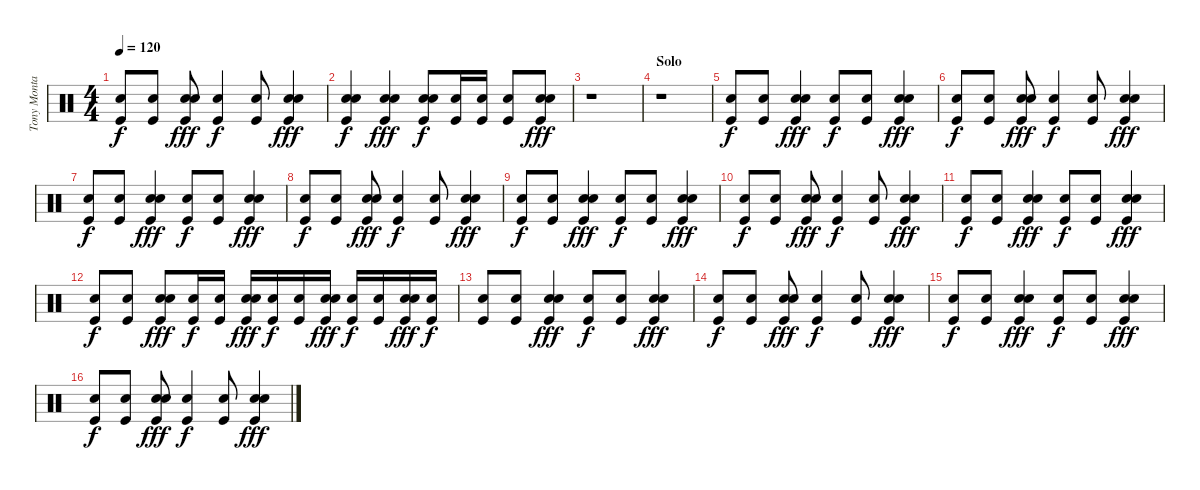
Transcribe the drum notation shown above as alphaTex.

\track ("Tony Montana" "Tony Monta") {instrument percussion}
\staff {score}
\articulation defaults
\ts (4 4)
\tempo 120
\clef neutral
\ks c
("Kick (hit)" "Snare (hit) 2").8{dy f} ("Kick (hit)" "Snare (hit) 2").8 ("Kick (hit)" "Snare (hit) 2" "Snare (hit) 2").8{dy fff} ("Kick (hit)" "Snare (hit) 2").4{dy f} ("Kick (hit)" "Snare (hit) 2").8 ("Kick (hit)" "Snare (hit) 2" "Snare (hit) 2").4{dy fff} |
("Kick (hit)" "Snare (hit) 2" "Snare (hit) 2").4{dy f} ("Kick (hit)" "Snare (hit) 2" "Snare (hit) 2").4{dy fff} ("Kick (hit)" "Snare (hit) 2" "Snare (hit) 2").8{dy f} ("Kick (hit)" "Snare (hit) 2").16 ("Kick (hit)" "Snare (hit) 2").16 ("Kick (hit)" "Snare (hit) 2").8 ("Kick (hit)" "Snare (hit) 2" "Snare (hit) 2").8{dy fff} |
r.1 |
\section ("" "Solo")
r.1 |
("Kick (hit)" "Snare (hit) 2").8{dy f} ("Kick (hit)" "Snare (hit) 2").8 ("Kick (hit)" "Snare (hit) 2" "Snare (hit) 2").4{dy fff} ("Kick (hit)" "Snare (hit) 2").8{dy f} ("Kick (hit)" "Snare (hit) 2").8 ("Kick (hit)" "Snare (hit) 2" "Snare (hit) 2").4{dy fff} |
("Kick (hit)" "Snare (hit) 2").8{dy f} ("Kick (hit)" "Snare (hit) 2").8 ("Kick (hit)" "Snare (hit) 2" "Snare (hit) 2").8{dy fff} ("Kick (hit)" "Snare (hit) 2").4{dy f} ("Kick (hit)" "Snare (hit) 2").8 ("Kick (hit)" "Snare (hit) 2" "Snare (hit) 2").4{dy fff} |
("Kick (hit)" "Snare (hit) 2").8{dy f} ("Kick (hit)" "Snare (hit) 2").8 ("Kick (hit)" "Snare (hit) 2" "Snare (hit) 2").4{dy fff} ("Kick (hit)" "Snare (hit) 2").8{dy f} ("Kick (hit)" "Snare (hit) 2").8 ("Kick (hit)" "Snare (hit) 2" "Snare (hit) 2").4{dy fff} |
("Kick (hit)" "Snare (hit) 2").8{dy f} ("Kick (hit)" "Snare (hit) 2").8 ("Kick (hit)" "Snare (hit) 2" "Snare (hit) 2").8{dy fff} ("Kick (hit)" "Snare (hit) 2").4{dy f} ("Kick (hit)" "Snare (hit) 2").8 ("Kick (hit)" "Snare (hit) 2" "Snare (hit) 2").4{dy fff} |
("Kick (hit)" "Snare (hit) 2").8{dy f} ("Kick (hit)" "Snare (hit) 2").8 ("Kick (hit)" "Snare (hit) 2" "Snare (hit) 2").4{dy fff} ("Kick (hit)" "Snare (hit) 2").8{dy f} ("Kick (hit)" "Snare (hit) 2").8 ("Kick (hit)" "Snare (hit) 2" "Snare (hit) 2").4{dy fff} |
("Kick (hit)" "Snare (hit) 2").8{dy f} ("Kick (hit)" "Snare (hit) 2").8 ("Kick (hit)" "Snare (hit) 2" "Snare (hit) 2").8{dy fff} ("Kick (hit)" "Snare (hit) 2").4{dy f} ("Kick (hit)" "Snare (hit) 2").8 ("Kick (hit)" "Snare (hit) 2" "Snare (hit) 2").4{dy fff} |
("Kick (hit)" "Snare (hit) 2").8{dy f} ("Kick (hit)" "Snare (hit) 2").8 ("Kick (hit)" "Snare (hit) 2" "Snare (hit) 2").4{dy fff} ("Kick (hit)" "Snare (hit) 2").8{dy f} ("Kick (hit)" "Snare (hit) 2").8 ("Kick (hit)" "Snare (hit) 2" "Snare (hit) 2").4{dy fff} |
("Kick (hit)" "Snare (hit) 2").8{dy f} ("Kick (hit)" "Snare (hit) 2").8 ("Kick (hit)" "Snare (hit) 2" "Snare (hit) 2").8{dy fff} ("Kick (hit)" "Snare (hit) 2").16{dy f} ("Kick (hit)" "Snare (hit) 2").16 ("Kick (hit)" "Snare (hit) 2" "Snare (hit) 2").16{dy fff} ("Kick (hit)" "Snare (hit) 2").16{dy f} ("Kick (hit)" "Snare (hit) 2").16 ("Kick (hit)" "Snare (hit) 2" "Snare (hit) 2").16{dy fff} ("Kick (hit)" "Snare (hit) 2").16{dy f} ("Kick (hit)" "Snare (hit) 2").16 ("Kick (hit)" "Snare (hit) 2" "Snare (hit) 2").16{dy fff} ("Kick (hit)" "Snare (hit) 2").16{dy f} |
("Kick (hit)" "Snare (hit) 2").8 ("Kick (hit)" "Snare (hit) 2").8 ("Kick (hit)" "Snare (hit) 2" "Snare (hit) 2").4{dy fff} ("Kick (hit)" "Snare (hit) 2").8{dy f} ("Kick (hit)" "Snare (hit) 2").8 ("Kick (hit)" "Snare (hit) 2" "Snare (hit) 2").4{dy fff} |
("Kick (hit)" "Snare (hit) 2").8{dy f} ("Kick (hit)" "Snare (hit) 2").8 ("Kick (hit)" "Snare (hit) 2" "Snare (hit) 2").8{dy fff} ("Kick (hit)" "Snare (hit) 2").4{dy f} ("Kick (hit)" "Snare (hit) 2").8 ("Kick (hit)" "Snare (hit) 2" "Snare (hit) 2").4{dy fff} |
("Kick (hit)" "Snare (hit) 2").8{dy f} ("Kick (hit)" "Snare (hit) 2").8 ("Kick (hit)" "Snare (hit) 2" "Snare (hit) 2").4{dy fff} ("Kick (hit)" "Snare (hit) 2").8{dy f} ("Kick (hit)" "Snare (hit) 2").8 ("Kick (hit)" "Snare (hit) 2" "Snare (hit) 2").4{dy fff} |
("Kick (hit)" "Snare (hit) 2").8{dy f} ("Kick (hit)" "Snare (hit) 2").8 ("Kick (hit)" "Snare (hit) 2" "Snare (hit) 2").8{dy fff} ("Kick (hit)" "Snare (hit) 2").4{dy f} ("Kick (hit)" "Snare (hit) 2").8 ("Kick (hit)" "Snare (hit) 2" "Snare (hit) 2").4{dy fff}
